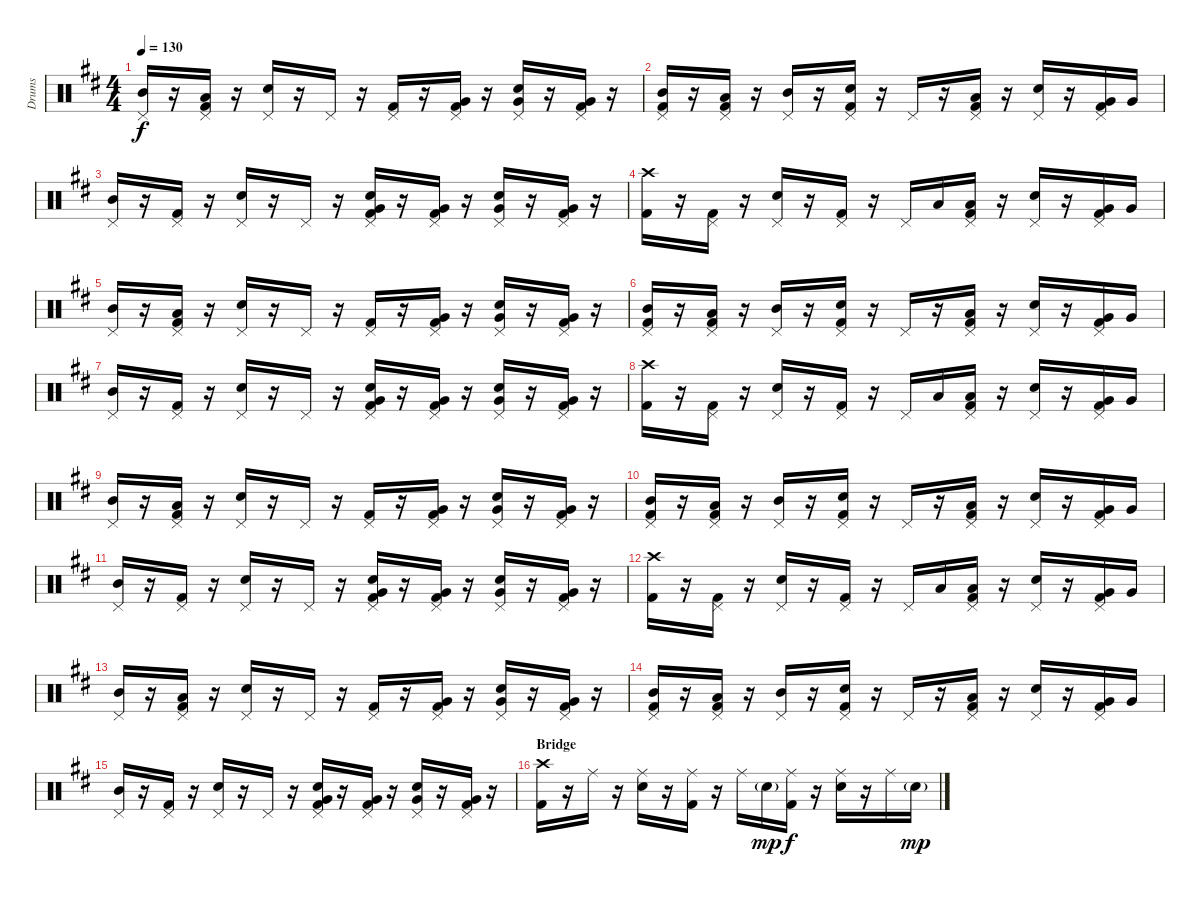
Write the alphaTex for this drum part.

\track ("Drums" "Drums") {instrument percussion}
\staff {score}
\articulation defaults
\ts (4 4)
\tempo 130
\clef neutral
\ks d
("Mid Tom (hit)" "Pedal Hi-Hat (hit)").16{dy f} r.16 ("Pedal Hi-Hat (hit)" "Low Tom (hit)" "Kick (hit) 2").16 r.16 ("Pedal Hi-Hat (hit)" "Electric Snare (hit)").16 r.16 "Pedal Hi-Hat (hit)".16 r.16 ("Pedal Hi-Hat (hit)" "Kick (hit) 2").16 r.16 ("Pedal Hi-Hat (hit)" "Very Low Tom (hit)" "Kick (hit) 2").16 r.16 ("Pedal Hi-Hat (hit)" "Electric Snare (hit)" "Very Low Tom (hit)").16 r.16 ("Pedal Hi-Hat (hit)" "Very Low Tom (hit)" "Kick (hit) 2").16 r.16 |
("Mid Tom (hit)" "Pedal Hi-Hat (hit)" "Kick (hit) 2").16 r.16 ("Pedal Hi-Hat (hit)" "Low Tom (hit)" "Kick (hit) 2").16 r.16 ("Mid Tom (hit)" "Pedal Hi-Hat (hit)").16 r.16 ("Pedal Hi-Hat (hit)" "Electric Snare (hit)" "Kick (hit) 2").16 r.16 "Pedal Hi-Hat (hit)".16 r.16 ("Pedal Hi-Hat (hit)" "Low Tom (hit)" "Kick (hit) 2").16 r.16 ("Pedal Hi-Hat (hit)" "Electric Snare (hit)").16 r.16 ("Pedal Hi-Hat (hit)" "Very Low Tom (hit)" "Kick (hit) 2").16 "Very Low Tom (hit)".16 |
("Mid Tom (hit)" "Pedal Hi-Hat (hit)").16 r.16 ("Pedal Hi-Hat (hit)" "Kick (hit) 2").16 r.16 ("Pedal Hi-Hat (hit)" "Electric Snare (hit)").16 r.16 "Pedal Hi-Hat (hit)".16 r.16 ("Pedal Hi-Hat (hit)" "Electric Snare (hit)" "Very Low Tom (hit)" "Kick (hit) 2").16 r.16 ("Pedal Hi-Hat (hit)" "Very Low Tom (hit)" "Kick (hit) 2").16 r.16 ("Pedal Hi-Hat (hit)" "Electric Snare (hit)" "Very Low Tom (hit)").16 r.16 ("Pedal Hi-Hat (hit)" "Very Low Tom (hit)" "Kick (hit) 2").16 r.16 |
("Crash high (hit)" "Kick (hit) 2").16 r.16 ("Pedal Hi-Hat (hit)" "Kick (hit) 2").16 r.16 ("Pedal Hi-Hat (hit)" "Electric Snare (hit)").16 r.16 ("Pedal Hi-Hat (hit)" "Kick (hit) 2").16 r.16 "Pedal Hi-Hat (hit)".16 "Low Tom (hit)".16 ("Pedal Hi-Hat (hit)" "Low Tom (hit)" "Kick (hit) 2").16 r.16 ("Pedal Hi-Hat (hit)" "Electric Snare (hit)").16 r.16 ("Pedal Hi-Hat (hit)" "Very Low Tom (hit)" "Kick (hit) 2").16 "Very Low Tom (hit)".16 |
("Mid Tom (hit)" "Pedal Hi-Hat (hit)").16 r.16 ("Pedal Hi-Hat (hit)" "Low Tom (hit)" "Kick (hit) 2").16 r.16 ("Pedal Hi-Hat (hit)" "Electric Snare (hit)").16 r.16 "Pedal Hi-Hat (hit)".16 r.16 ("Pedal Hi-Hat (hit)" "Kick (hit) 2").16 r.16 ("Pedal Hi-Hat (hit)" "Very Low Tom (hit)" "Kick (hit) 2").16 r.16 ("Pedal Hi-Hat (hit)" "Electric Snare (hit)" "Very Low Tom (hit)").16 r.16 ("Pedal Hi-Hat (hit)" "Very Low Tom (hit)" "Kick (hit) 2").16 r.16 |
("Mid Tom (hit)" "Pedal Hi-Hat (hit)" "Kick (hit) 2").16 r.16 ("Pedal Hi-Hat (hit)" "Low Tom (hit)" "Kick (hit) 2").16 r.16 ("Mid Tom (hit)" "Pedal Hi-Hat (hit)").16 r.16 ("Pedal Hi-Hat (hit)" "Electric Snare (hit)" "Kick (hit) 2").16 r.16 "Pedal Hi-Hat (hit)".16 r.16 ("Pedal Hi-Hat (hit)" "Low Tom (hit)" "Kick (hit) 2").16 r.16 ("Pedal Hi-Hat (hit)" "Electric Snare (hit)").16 r.16 ("Pedal Hi-Hat (hit)" "Very Low Tom (hit)" "Kick (hit) 2").16 "Very Low Tom (hit)".16 |
("Mid Tom (hit)" "Pedal Hi-Hat (hit)").16 r.16 ("Pedal Hi-Hat (hit)" "Kick (hit) 2").16 r.16 ("Pedal Hi-Hat (hit)" "Electric Snare (hit)").16 r.16 "Pedal Hi-Hat (hit)".16 r.16 ("Pedal Hi-Hat (hit)" "Electric Snare (hit)" "Very Low Tom (hit)" "Kick (hit) 2").16 r.16 ("Pedal Hi-Hat (hit)" "Very Low Tom (hit)" "Kick (hit) 2").16 r.16 ("Pedal Hi-Hat (hit)" "Electric Snare (hit)" "Very Low Tom (hit)").16 r.16 ("Pedal Hi-Hat (hit)" "Very Low Tom (hit)" "Kick (hit) 2").16 r.16 |
("Crash high (hit)" "Kick (hit) 2").16 r.16 ("Pedal Hi-Hat (hit)" "Kick (hit) 2").16 r.16 ("Pedal Hi-Hat (hit)" "Electric Snare (hit)").16 r.16 ("Pedal Hi-Hat (hit)" "Kick (hit) 2").16 r.16 "Pedal Hi-Hat (hit)".16 "Low Tom (hit)".16 ("Pedal Hi-Hat (hit)" "Low Tom (hit)" "Kick (hit) 2").16 r.16 ("Pedal Hi-Hat (hit)" "Electric Snare (hit)").16 r.16 ("Pedal Hi-Hat (hit)" "Very Low Tom (hit)" "Kick (hit) 2").16 "Very Low Tom (hit)".16 |
("Mid Tom (hit)" "Pedal Hi-Hat (hit)").16 r.16 ("Pedal Hi-Hat (hit)" "Low Tom (hit)" "Kick (hit) 2").16 r.16 ("Pedal Hi-Hat (hit)" "Electric Snare (hit)").16 r.16 "Pedal Hi-Hat (hit)".16 r.16 ("Pedal Hi-Hat (hit)" "Kick (hit) 2").16 r.16 ("Pedal Hi-Hat (hit)" "Very Low Tom (hit)" "Kick (hit) 2").16 r.16 ("Pedal Hi-Hat (hit)" "Electric Snare (hit)" "Very Low Tom (hit)").16 r.16 ("Pedal Hi-Hat (hit)" "Very Low Tom (hit)" "Kick (hit) 2").16 r.16 |
("Mid Tom (hit)" "Pedal Hi-Hat (hit)" "Kick (hit) 2").16 r.16 ("Pedal Hi-Hat (hit)" "Low Tom (hit)" "Kick (hit) 2").16 r.16 ("Mid Tom (hit)" "Pedal Hi-Hat (hit)").16 r.16 ("Pedal Hi-Hat (hit)" "Electric Snare (hit)" "Kick (hit) 2").16 r.16 "Pedal Hi-Hat (hit)".16 r.16 ("Pedal Hi-Hat (hit)" "Low Tom (hit)" "Kick (hit) 2").16 r.16 ("Pedal Hi-Hat (hit)" "Electric Snare (hit)").16 r.16 ("Pedal Hi-Hat (hit)" "Very Low Tom (hit)" "Kick (hit) 2").16 "Very Low Tom (hit)".16 |
("Mid Tom (hit)" "Pedal Hi-Hat (hit)").16 r.16 ("Pedal Hi-Hat (hit)" "Kick (hit) 2").16 r.16 ("Pedal Hi-Hat (hit)" "Electric Snare (hit)").16 r.16 "Pedal Hi-Hat (hit)".16 r.16 ("Pedal Hi-Hat (hit)" "Electric Snare (hit)" "Very Low Tom (hit)" "Kick (hit) 2").16 r.16 ("Pedal Hi-Hat (hit)" "Very Low Tom (hit)" "Kick (hit) 2").16 r.16 ("Pedal Hi-Hat (hit)" "Electric Snare (hit)" "Very Low Tom (hit)").16 r.16 ("Pedal Hi-Hat (hit)" "Very Low Tom (hit)" "Kick (hit) 2").16 r.16 |
("Crash high (hit)" "Kick (hit) 2").16 r.16 ("Pedal Hi-Hat (hit)" "Kick (hit) 2").16 r.16 ("Pedal Hi-Hat (hit)" "Electric Snare (hit)").16 r.16 ("Pedal Hi-Hat (hit)" "Kick (hit) 2").16 r.16 "Pedal Hi-Hat (hit)".16 "Low Tom (hit)".16 ("Pedal Hi-Hat (hit)" "Low Tom (hit)" "Kick (hit) 2").16 r.16 ("Pedal Hi-Hat (hit)" "Electric Snare (hit)").16 r.16 ("Pedal Hi-Hat (hit)" "Very Low Tom (hit)" "Kick (hit) 2").16 "Very Low Tom (hit)".16 |
("Mid Tom (hit)" "Pedal Hi-Hat (hit)").16 r.16 ("Pedal Hi-Hat (hit)" "Low Tom (hit)" "Kick (hit) 2").16 r.16 ("Pedal Hi-Hat (hit)" "Electric Snare (hit)").16 r.16 "Pedal Hi-Hat (hit)".16 r.16 ("Pedal Hi-Hat (hit)" "Kick (hit) 2").16 r.16 ("Pedal Hi-Hat (hit)" "Very Low Tom (hit)" "Kick (hit) 2").16 r.16 ("Pedal Hi-Hat (hit)" "Electric Snare (hit)" "Very Low Tom (hit)").16 r.16 ("Pedal Hi-Hat (hit)" "Very Low Tom (hit)" "Kick (hit) 2").16 r.16 |
("Mid Tom (hit)" "Pedal Hi-Hat (hit)" "Kick (hit) 2").16 r.16 ("Pedal Hi-Hat (hit)" "Low Tom (hit)" "Kick (hit) 2").16 r.16 ("Mid Tom (hit)" "Pedal Hi-Hat (hit)").16 r.16 ("Pedal Hi-Hat (hit)" "Electric Snare (hit)" "Kick (hit) 2").16 r.16 "Pedal Hi-Hat (hit)".16 r.16 ("Pedal Hi-Hat (hit)" "Low Tom (hit)" "Kick (hit) 2").16 r.16 ("Pedal Hi-Hat (hit)" "Electric Snare (hit)").16 r.16 ("Pedal Hi-Hat (hit)" "Very Low Tom (hit)" "Kick (hit) 2").16 "Very Low Tom (hit)".16 |
("Mid Tom (hit)" "Pedal Hi-Hat (hit)").16 r.16 ("Pedal Hi-Hat (hit)" "Kick (hit) 2").16 r.16 ("Pedal Hi-Hat (hit)" "Electric Snare (hit)").16 r.16 "Pedal Hi-Hat (hit)".16 r.16 ("Pedal Hi-Hat (hit)" "Electric Snare (hit)" "Very Low Tom (hit)" "Kick (hit) 2").16 r.16 ("Pedal Hi-Hat (hit)" "Very Low Tom (hit)" "Kick (hit) 2").16 r.16 ("Pedal Hi-Hat (hit)" "Electric Snare (hit)" "Very Low Tom (hit)").16 r.16 ("Pedal Hi-Hat (hit)" "Very Low Tom (hit)" "Kick (hit) 2").16 r.16 |
\section ("" "Bridge")
("Crash high (hit)" "Kick (hit) 2").16 r.16 "Ride (middle)".16 r.16 ("Ride (middle)" "Electric Snare (hit)").16 r.16 ("Ride (middle)" "Kick (hit) 2").16 r.16 "Ride (middle)".16 "Electric Snare (hit)"{g}.16{dy mp} ("Ride (middle)" "Kick (hit) 2").16{dy f} r.16 ("Ride (middle)" "Electric Snare (hit)").16 r.16 "Ride (middle)".16 "Electric Snare (hit)"{g}.16{dy mp}
